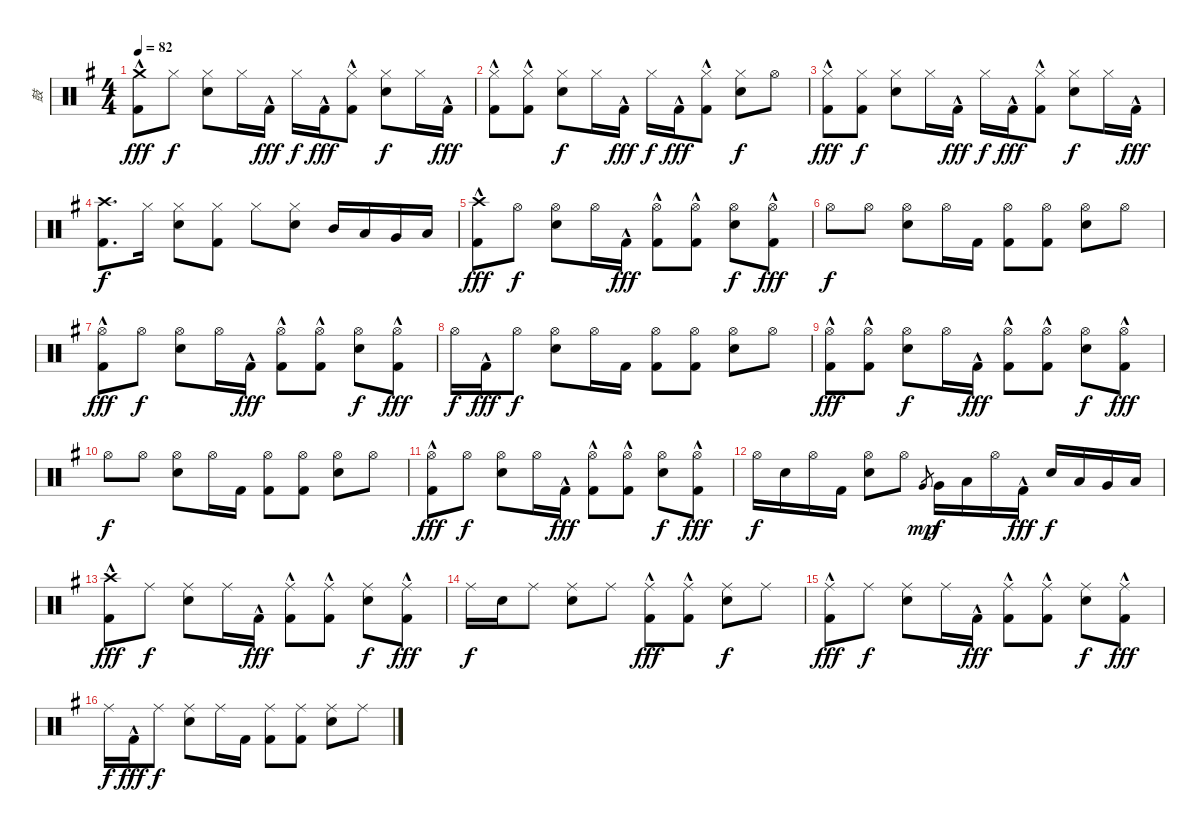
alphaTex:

\track ("鼓" "鼓") {instrument percussion}
\staff {score}
\articulation defaults
\ts (4 4)
\tempo 82
\clef neutral
\ks g
("Crash medium (hit)" "Kick (hit) 2"{hac}).8{dy fff} "Hi-Hat (closed)".8{dy f} ("Hi-Hat (closed)" "Electric Snare (hit)").8 "Hi-Hat (closed)".16 "Kick (hit) 2"{hac}.16{dy fff} "Hi-Hat (closed)".16{dy f} "Kick (hit) 2"{hac}.16{dy fff} ("Hi-Hat (closed)" "Kick (hit) 2"{hac}).8 ("Hi-Hat (closed)" "Electric Snare (hit)").8{dy f} "Hi-Hat (closed)".16 "Kick (hit) 2"{hac}.16{dy fff} |
("Hi-Hat (closed)" "Kick (hit) 2"{hac}).8 ("Hi-Hat (closed)" "Kick (hit) 2"{hac}).8 ("Hi-Hat (closed)" "Electric Snare (hit)").8{dy f} "Hi-Hat (closed)".16 "Kick (hit) 2"{hac}.16{dy fff} "Hi-Hat (closed)".16{dy f} "Kick (hit) 2"{hac}.16{dy fff} ("Hi-Hat (closed)" "Kick (hit) 2"{hac}).8 ("Hi-Hat (closed)" "Electric Snare (hit)").8{dy f} "Hi-Hat (open)".8 |
("Hi-Hat (closed)" "Kick (hit) 2"{hac}).8{dy fff} ("Hi-Hat (closed)" "Kick (hit) 2").8{dy f} ("Hi-Hat (closed)" "Electric Snare (hit)").8 "Hi-Hat (closed)".16 "Kick (hit) 2"{hac}.16{dy fff} "Hi-Hat (closed)".16{dy f} "Kick (hit) 2"{hac}.16{dy fff} ("Hi-Hat (closed)" "Kick (hit) 2"{hac}).8 ("Hi-Hat (closed)" "Electric Snare (hit)").8{dy f} "Hi-Hat (closed)".16 "Kick (hit) 2"{hac}.16{dy fff} |
("Crash high (hit)" "Kick (hit) 2").8{d dy f} "Hi-Hat (closed)".16 ("Hi-Hat (closed)" "Electric Snare (hit)").8 ("Hi-Hat (closed)" "Kick (hit) 2").8 "Hi-Hat (closed)".8 ("Hi-Hat (closed)" "Electric Snare (hit)").8 "Mid Tom (hit)".16 "Low Tom (hit)".16 "Very Low Tom (hit)".16 "Low Floor Tom (hit)".16 |
("Crash high (hit)" "Kick (hit) 2"{hac}).8{dy fff} "Hi-Hat (open)".8{dy f} ("Hi-Hat (open)" "Electric Snare (hit)").8 "Hi-Hat (open)".16 "Kick (hit) 2"{hac}.16{dy fff} ("Hi-Hat (open)" "Kick (hit) 2"{hac}).8 ("Hi-Hat (open)" "Kick (hit) 2"{hac}).8 ("Hi-Hat (open)" "Electric Snare (hit)").8{dy f} ("Hi-Hat (open)" "Kick (hit) 2"{hac}).8{dy fff} |
"Hi-Hat (open)".8{dy f} "Hi-Hat (open)".8 ("Hi-Hat (open)" "Electric Snare (hit)").8 "Hi-Hat (open)".16 "Kick (hit) 2".16 ("Hi-Hat (open)" "Kick (hit) 2").8 ("Hi-Hat (open)" "Kick (hit) 2").8 ("Hi-Hat (open)" "Electric Snare (hit)").8 "Hi-Hat (open)".8 |
("Hi-Hat (open)" "Kick (hit) 2"{hac}).8{dy fff} "Hi-Hat (open)".8{dy f} ("Hi-Hat (open)" "Electric Snare (hit)").8 "Hi-Hat (open)".16 "Kick (hit) 2"{hac}.16{dy fff} ("Hi-Hat (open)" "Kick (hit) 2"{hac}).8 ("Hi-Hat (open)" "Kick (hit) 2"{hac}).8 ("Hi-Hat (open)" "Electric Snare (hit)").8{dy f} ("Hi-Hat (open)" "Kick (hit) 2"{hac}).8{dy fff} |
"Hi-Hat (open)".16{dy f} "Kick (hit) 2"{hac}.16{dy fff} "Hi-Hat (open)".8{dy f} ("Hi-Hat (open)" "Electric Snare (hit)").8 "Hi-Hat (open)".16 "Kick (hit) 2".16 ("Hi-Hat (open)" "Kick (hit) 2").8 ("Hi-Hat (open)" "Kick (hit) 2").8 ("Hi-Hat (open)" "Electric Snare (hit)").8 "Hi-Hat (open)".8 |
("Hi-Hat (open)" "Kick (hit) 2"{hac}).8{dy fff} ("Hi-Hat (open)" "Kick (hit) 2"{hac}).8 ("Hi-Hat (open)" "Electric Snare (hit)").8{dy f} "Hi-Hat (open)".16 "Kick (hit) 2"{hac}.16{dy fff} ("Hi-Hat (open)" "Kick (hit) 2"{hac}).8 ("Hi-Hat (open)" "Kick (hit) 2"{hac}).8 ("Hi-Hat (open)" "Electric Snare (hit)").8{dy f} ("Hi-Hat (open)" "Kick (hit) 2"{hac}).8{dy fff} |
"Hi-Hat (open)".8{dy f} "Hi-Hat (open)".8 ("Hi-Hat (open)" "Electric Snare (hit)").8 "Hi-Hat (open)".16 "Kick (hit) 2".16 ("Hi-Hat (open)" "Kick (hit) 2").8 ("Hi-Hat (open)" "Kick (hit) 2").8 ("Hi-Hat (open)" "Electric Snare (hit)").8 "Hi-Hat (open)".8 |
("Hi-Hat (open)" "Kick (hit) 2"{hac}).8{dy fff} "Hi-Hat (open)".8{dy f} ("Hi-Hat (open)" "Electric Snare (hit)").8 "Hi-Hat (open)".16 "Kick (hit) 2"{hac}.16{dy fff} ("Hi-Hat (open)" "Kick (hit) 2"{hac}).8 ("Hi-Hat (open)" "Kick (hit) 2"{hac}).8 ("Hi-Hat (open)" "Electric Snare (hit)").8{dy f} ("Hi-Hat (open)" "Kick (hit) 2"{hac}).8{dy fff} |
"Hi-Hat (open)".16{dy f} "Electric Snare (hit)".16 "Hi-Hat (open)".16 "Kick (hit) 2".16 ("Hi-Hat (open)" "Electric Snare (hit)").8 "Hi-Hat (open)".8 "Very Low Tom (hit)".8{gr dy mp} "Very Low Tom (hit)".16{dy f} "Low Floor Tom (hit)".16 "Hi-Hat (open)".16 "Kick (hit) 2"{hac}.16{dy fff} "Electric Snare (hit)".16{dy f} "Low Tom (hit)".16 "Very Low Tom (hit)".16 "Low Floor Tom (hit)".16 |
("Crash high (hit)" "Kick (hit) 2"{hac}).8{dy fff} "Ride (middle)".8{dy f} ("Ride (middle)" "Electric Snare (hit)").8 "Ride (middle)".16 "Kick (hit) 2"{hac}.16{dy fff} ("Ride (middle)" "Kick (hit) 2"{hac}).8 ("Ride (middle)" "Kick (hit) 2"{hac}).8 ("Ride (middle)" "Electric Snare (hit)").8{dy f} ("Ride (middle)" "Kick (hit) 2"{hac}).8{dy fff} |
"Ride (middle)".16{dy f} "Electric Snare (hit)".16 "Ride (middle)".8 ("Ride (middle)" "Electric Snare (hit)").8 "Ride (middle)".8 ("Ride (middle)" "Kick (hit) 2"{hac}).8{dy fff} ("Ride (middle)" "Kick (hit) 2"{hac}).8 ("Ride (middle)" "Electric Snare (hit)").8{dy f} "Ride (middle)".8 |
("Ride (middle)" "Kick (hit) 2"{hac}).8{dy fff} "Ride (middle)".8{dy f} ("Ride (middle)" "Electric Snare (hit)").8 "Ride (middle)".16 "Kick (hit) 2"{hac}.16{dy fff} ("Ride (middle)" "Kick (hit) 2"{hac}).8 ("Ride (middle)" "Kick (hit) 2"{hac}).8 ("Ride (middle)" "Electric Snare (hit)").8{dy f} ("Ride (middle)" "Kick (hit) 2"{hac}).8{dy fff} |
"Ride (middle)".16{dy f} "Kick (hit) 2"{hac}.16{dy fff} "Ride (middle)".8{dy f} ("Ride (middle)" "Electric Snare (hit)").8 "Ride (middle)".16 "Kick (hit) 2".16 ("Ride (middle)" "Kick (hit) 2").8 ("Ride (middle)" "Kick (hit) 2").8 ("Ride (middle)" "Electric Snare (hit)").8 "Ride (middle)".8
